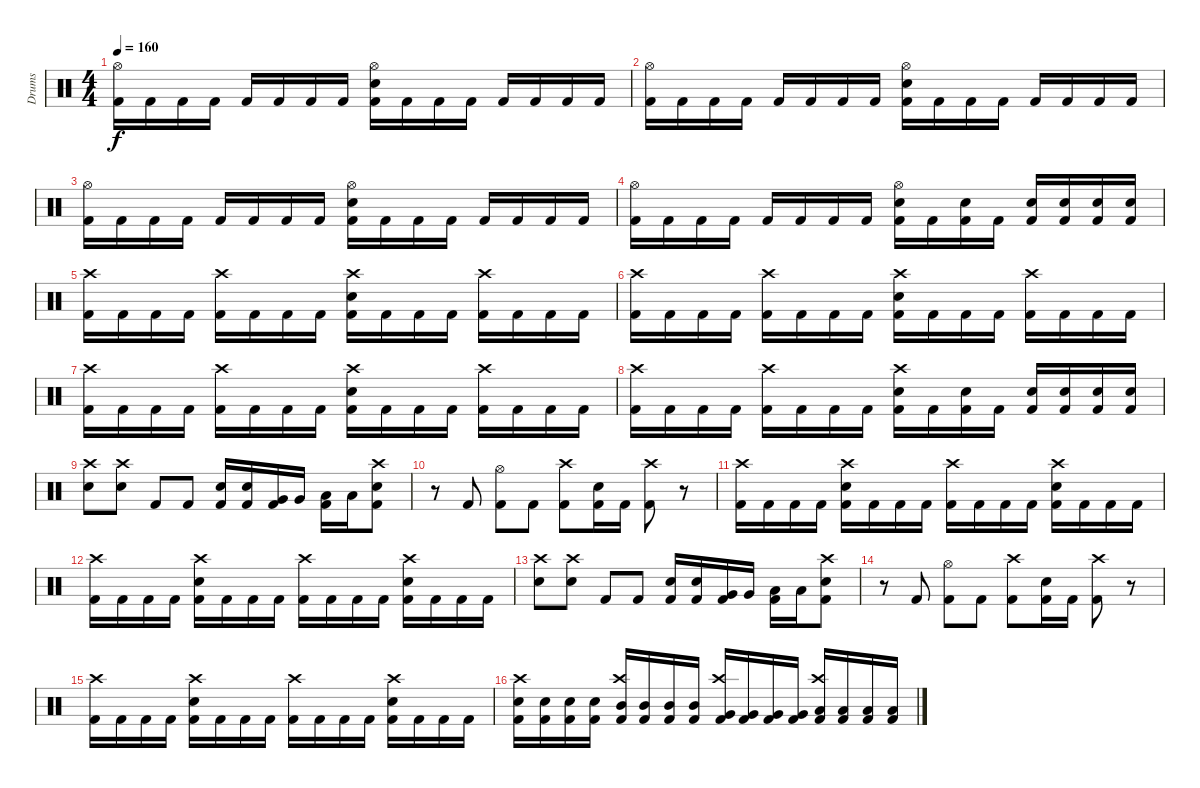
\track ("Drums" "Drums") {instrument percussion}
\staff {score}
\articulation defaults
\ts (4 4)
\tempo 160
\clef neutral
\ks c
("Hi-Hat (open)" "Kick (hit) 2").16{dy f} "Kick (hit) 2".16 "Kick (hit) 2".16 "Kick (hit) 2".16 "Kick (hit) 2".16 "Kick (hit) 2".16 "Kick (hit) 2".16 "Kick (hit) 2".16 ("Hi-Hat (open)" "Electric Snare (hit)" "Kick (hit) 2").16 "Kick (hit) 2".16 "Kick (hit) 2".16 "Kick (hit) 2".16 "Kick (hit) 2".16 "Kick (hit) 2".16 "Kick (hit) 2".16 "Kick (hit) 2".16 |
("Hi-Hat (open)" "Kick (hit) 2").16 "Kick (hit) 2".16 "Kick (hit) 2".16 "Kick (hit) 2".16 "Kick (hit) 2".16 "Kick (hit) 2".16 "Kick (hit) 2".16 "Kick (hit) 2".16 ("Hi-Hat (open)" "Electric Snare (hit)" "Kick (hit) 2").16 "Kick (hit) 2".16 "Kick (hit) 2".16 "Kick (hit) 2".16 "Kick (hit) 2".16 "Kick (hit) 2".16 "Kick (hit) 2".16 "Kick (hit) 2".16 |
("Hi-Hat (open)" "Kick (hit) 2").16 "Kick (hit) 2".16 "Kick (hit) 2".16 "Kick (hit) 2".16 "Kick (hit) 2".16 "Kick (hit) 2".16 "Kick (hit) 2".16 "Kick (hit) 2".16 ("Hi-Hat (open)" "Electric Snare (hit)" "Kick (hit) 2").16 "Kick (hit) 2".16 "Kick (hit) 2".16 "Kick (hit) 2".16 "Kick (hit) 2".16 "Kick (hit) 2".16 "Kick (hit) 2".16 "Kick (hit) 2".16 |
("Hi-Hat (open)" "Kick (hit) 2").16 "Kick (hit) 2".16 "Kick (hit) 2".16 "Kick (hit) 2".16 "Kick (hit) 2".16 "Kick (hit) 2".16 "Kick (hit) 2".16 "Kick (hit) 2".16 ("Hi-Hat (open)" "Electric Snare (hit)" "Kick (hit) 2").16 "Kick (hit) 2".16 ("Electric Snare (hit)" "Kick (hit) 2").16 "Kick (hit) 2".16 ("Electric Snare (hit)" "Kick (hit) 2").16 ("Electric Snare (hit)" "Kick (hit) 2").16 ("Electric Snare (hit)" "Kick (hit) 2").16 ("Electric Snare (hit)" "Kick (hit) 2").16 |
("Crash high (hit)" "Kick (hit) 2").16 "Kick (hit) 2".16 "Kick (hit) 2".16 "Kick (hit) 2".16 ("Crash high (hit)" "Kick (hit) 2").16 "Kick (hit) 2".16 "Kick (hit) 2".16 "Kick (hit) 2".16 ("Crash high (hit)" "Electric Snare (hit)" "Kick (hit) 2").16 "Kick (hit) 2".16 "Kick (hit) 2".16 "Kick (hit) 2".16 ("Crash high (hit)" "Kick (hit) 2").16 "Kick (hit) 2".16 "Kick (hit) 2".16 "Kick (hit) 2".16 |
("Crash high (hit)" "Kick (hit) 2").16 "Kick (hit) 2".16 "Kick (hit) 2".16 "Kick (hit) 2".16 ("Crash high (hit)" "Kick (hit) 2").16 "Kick (hit) 2".16 "Kick (hit) 2".16 "Kick (hit) 2".16 ("Crash high (hit)" "Electric Snare (hit)" "Kick (hit) 2").16 "Kick (hit) 2".16 "Kick (hit) 2".16 "Kick (hit) 2".16 ("Crash high (hit)" "Kick (hit) 2").16 "Kick (hit) 2".16 "Kick (hit) 2".16 "Kick (hit) 2".16 |
("Crash high (hit)" "Kick (hit) 2").16 "Kick (hit) 2".16 "Kick (hit) 2".16 "Kick (hit) 2".16 ("Crash high (hit)" "Kick (hit) 2").16 "Kick (hit) 2".16 "Kick (hit) 2".16 "Kick (hit) 2".16 ("Crash high (hit)" "Electric Snare (hit)" "Kick (hit) 2").16 "Kick (hit) 2".16 "Kick (hit) 2".16 "Kick (hit) 2".16 ("Crash high (hit)" "Kick (hit) 2").16 "Kick (hit) 2".16 "Kick (hit) 2".16 "Kick (hit) 2".16 |
("Crash high (hit)" "Kick (hit) 2").16 "Kick (hit) 2".16 "Kick (hit) 2".16 "Kick (hit) 2".16 ("Crash high (hit)" "Kick (hit) 2").16 "Kick (hit) 2".16 "Kick (hit) 2".16 "Kick (hit) 2".16 ("Crash high (hit)" "Electric Snare (hit)" "Kick (hit) 2").16 "Kick (hit) 2".16 ("Electric Snare (hit)" "Kick (hit) 2").16 "Kick (hit) 2".16 ("Electric Snare (hit)" "Kick (hit) 2").16 ("Electric Snare (hit)" "Kick (hit) 2").16 ("Electric Snare (hit)" "Kick (hit) 2").16 ("Electric Snare (hit)" "Kick (hit) 2").16 |
("Crash high (hit)" "Electric Snare (hit)").8 ("Crash high (hit)" "Electric Snare (hit)").8 "Kick (hit) 2".8 "Kick (hit) 2".8 ("Electric Snare (hit)" "Kick (hit) 2").16 ("Electric Snare (hit)" "Kick (hit) 2").16 ("Very Low Tom (hit)" "Kick (hit) 2").16 "Very Low Tom (hit)".16 ("Low Floor Tom (hit)" "Kick (hit) 2").16 "Low Floor Tom (hit)".16 ("Crash high (hit)" "Electric Snare (hit)" "Kick (hit) 2").8 |
r.8 "Kick (hit) 2".8 ("Hi-Hat (open)" "Kick (hit) 2").8 "Kick (hit) 2".8 ("Crash high (hit)" "Kick (hit) 2").8 ("Electric Snare (hit)" "Kick (hit) 2").16 "Kick (hit) 2".16 ("Crash high (hit)" "Kick (hit) 2").8 r.8 |
("Crash high (hit)" "Kick (hit) 2").16 "Kick (hit) 2".16 "Kick (hit) 2".16 "Kick (hit) 2".16 ("Crash high (hit)" "Electric Snare (hit)" "Kick (hit) 2").16 "Kick (hit) 2".16 "Kick (hit) 2".16 "Kick (hit) 2".16 ("Crash high (hit)" "Kick (hit) 2").16 "Kick (hit) 2".16 "Kick (hit) 2".16 "Kick (hit) 2".16 ("Crash high (hit)" "Electric Snare (hit)" "Kick (hit) 2").16 "Kick (hit) 2".16 "Kick (hit) 2".16 "Kick (hit) 2".16 |
("Crash high (hit)" "Kick (hit) 2").16 "Kick (hit) 2".16 "Kick (hit) 2".16 "Kick (hit) 2".16 ("Crash high (hit)" "Electric Snare (hit)" "Kick (hit) 2").16 "Kick (hit) 2".16 "Kick (hit) 2".16 "Kick (hit) 2".16 ("Crash high (hit)" "Kick (hit) 2").16 "Kick (hit) 2".16 "Kick (hit) 2".16 "Kick (hit) 2".16 ("Crash high (hit)" "Electric Snare (hit)" "Kick (hit) 2").16 "Kick (hit) 2".16 "Kick (hit) 2".16 "Kick (hit) 2".16 |
("Crash high (hit)" "Electric Snare (hit)").8 ("Crash high (hit)" "Electric Snare (hit)").8 "Kick (hit) 2".8 "Kick (hit) 2".8 ("Electric Snare (hit)" "Kick (hit) 2").16 ("Electric Snare (hit)" "Kick (hit) 2").16 ("Very Low Tom (hit)" "Kick (hit) 2").16 "Very Low Tom (hit)".16 ("Low Floor Tom (hit)" "Kick (hit) 2").16 "Low Floor Tom (hit)".16 ("Crash high (hit)" "Electric Snare (hit)" "Kick (hit) 2").8 |
r.8 "Kick (hit) 2".8 ("Hi-Hat (open)" "Kick (hit) 2").8 "Kick (hit) 2".8 ("Crash high (hit)" "Kick (hit) 2").8 ("Electric Snare (hit)" "Kick (hit) 2").16 "Kick (hit) 2".16 ("Crash high (hit)" "Kick (hit) 2").8 r.8 |
("Crash high (hit)" "Kick (hit) 2").16 "Kick (hit) 2".16 "Kick (hit) 2".16 "Kick (hit) 2".16 ("Crash high (hit)" "Electric Snare (hit)" "Kick (hit) 2").16 "Kick (hit) 2".16 "Kick (hit) 2".16 "Kick (hit) 2".16 ("Crash high (hit)" "Kick (hit) 2").16 "Kick (hit) 2".16 "Kick (hit) 2".16 "Kick (hit) 2".16 ("Crash high (hit)" "Electric Snare (hit)" "Kick (hit) 2").16 "Kick (hit) 2".16 "Kick (hit) 2".16 "Kick (hit) 2".16 |
("Crash high (hit)" "Electric Snare (hit)" "Kick (hit) 2").16 ("Electric Snare (hit)" "Kick (hit) 2").16 ("Electric Snare (hit)" "Kick (hit) 2").16 ("Electric Snare (hit)" "Kick (hit) 2").16 ("Crash high (hit)" "Mid Tom (hit)" "Kick (hit) 2").16 ("Mid Tom (hit)" "Kick (hit) 2").16 ("Mid Tom (hit)" "Kick (hit) 2").16 ("Mid Tom (hit)" "Kick (hit) 2").16 ("Crash high (hit)" "Very Low Tom (hit)" "Kick (hit) 2").16 ("Very Low Tom (hit)" "Kick (hit) 2").16 ("Very Low Tom (hit)" "Kick (hit) 2").16 ("Very Low Tom (hit)" "Kick (hit) 2").16 ("Crash high (hit)" "Low Floor Tom (hit)" "Kick (hit) 2").16 ("Low Floor Tom (hit)" "Kick (hit) 2").16 ("Low Floor Tom (hit)" "Kick (hit) 2").16 ("Low Floor Tom (hit)" "Kick (hit) 2").16
